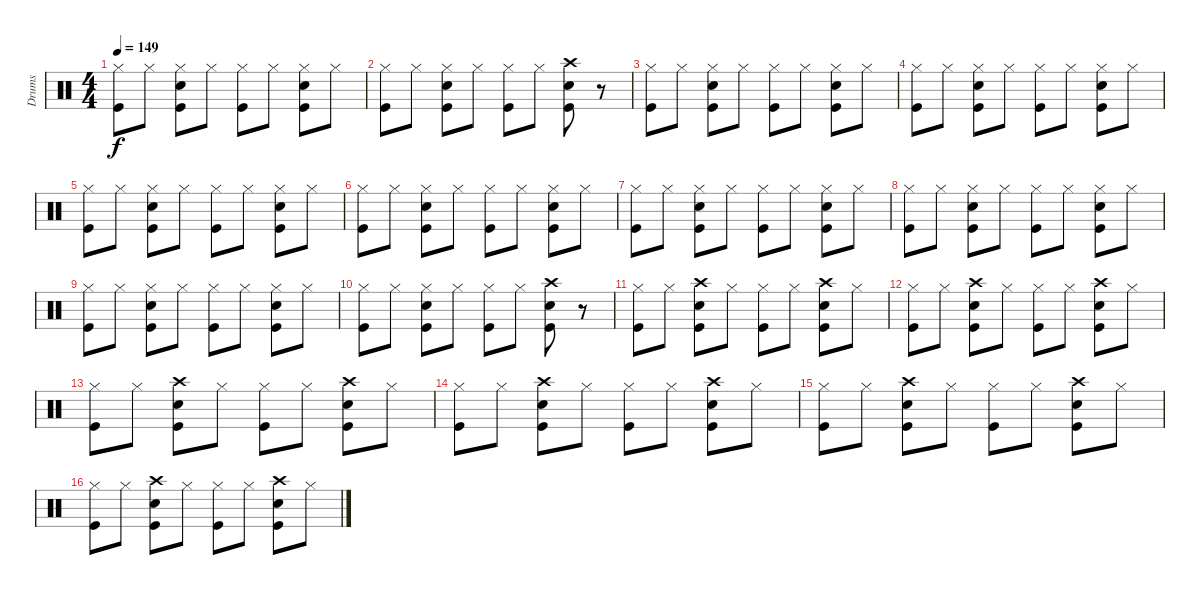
\track ("Drums" "Drums") {instrument percussion}
\staff {score}
\articulation defaults
\ts (4 4)
\tempo 149
\clef neutral
\ks c
("Hi-Hat (closed)" "Kick (hit)").8{dy f} "Hi-Hat (closed)".8 ("Hi-Hat (closed)" "Kick (hit)" "Snare (hit) 2").8 "Hi-Hat (closed)".8 ("Hi-Hat (closed)" "Kick (hit)").8 "Hi-Hat (closed)".8 ("Hi-Hat (closed)" "Kick (hit)" "Snare (hit) 2").8 "Hi-Hat (closed)".8 |
("Hi-Hat (closed)" "Kick (hit)").8 "Hi-Hat (closed)".8 ("Hi-Hat (closed)" "Snare (hit) 2" "Kick (hit)").8 "Hi-Hat (closed)".8 ("Hi-Hat (closed)" "Kick (hit)").8 "Hi-Hat (closed)".8 ("Crash high (hit)" "Kick (hit)" "Snare (hit) 2").8 r.8 |
("Hi-Hat (closed)" "Kick (hit)").8 "Hi-Hat (closed)".8 ("Hi-Hat (closed)" "Kick (hit)" "Snare (hit) 2").8 "Hi-Hat (closed)".8 ("Hi-Hat (closed)" "Kick (hit)").8 "Hi-Hat (closed)".8 ("Hi-Hat (closed)" "Kick (hit)" "Snare (hit) 2").8 "Hi-Hat (closed)".8 |
("Hi-Hat (closed)" "Kick (hit)").8 "Hi-Hat (closed)".8 ("Hi-Hat (closed)" "Kick (hit)" "Snare (hit) 2").8 "Hi-Hat (closed)".8 ("Hi-Hat (closed)" "Kick (hit)").8 "Hi-Hat (closed)".8 ("Hi-Hat (closed)" "Kick (hit)" "Snare (hit) 2").8 "Hi-Hat (closed)".8 |
("Hi-Hat (closed)" "Kick (hit)").8 "Hi-Hat (closed)".8 ("Hi-Hat (closed)" "Kick (hit)" "Snare (hit) 2").8 "Hi-Hat (closed)".8 ("Hi-Hat (closed)" "Kick (hit)").8 "Hi-Hat (closed)".8 ("Hi-Hat (closed)" "Kick (hit)" "Snare (hit) 2").8 "Hi-Hat (closed)".8 |
("Hi-Hat (closed)" "Kick (hit)").8 "Hi-Hat (closed)".8 ("Hi-Hat (closed)" "Kick (hit)" "Snare (hit) 2").8 "Hi-Hat (closed)".8 ("Hi-Hat (closed)" "Kick (hit)").8 "Hi-Hat (closed)".8 ("Hi-Hat (closed)" "Kick (hit)" "Snare (hit) 2").8 "Hi-Hat (closed)".8 |
("Hi-Hat (closed)" "Kick (hit)").8 "Hi-Hat (closed)".8 ("Hi-Hat (closed)" "Kick (hit)" "Snare (hit) 2").8 "Hi-Hat (closed)".8 ("Hi-Hat (closed)" "Kick (hit)").8 "Hi-Hat (closed)".8 ("Hi-Hat (closed)" "Kick (hit)" "Snare (hit) 2").8 "Hi-Hat (closed)".8 |
("Hi-Hat (closed)" "Kick (hit)").8 "Hi-Hat (closed)".8 ("Hi-Hat (closed)" "Kick (hit)" "Snare (hit) 2").8 "Hi-Hat (closed)".8 ("Hi-Hat (closed)" "Kick (hit)").8 "Hi-Hat (closed)".8 ("Hi-Hat (closed)" "Kick (hit)" "Snare (hit) 2").8 "Hi-Hat (closed)".8 |
("Hi-Hat (closed)" "Kick (hit)").8 "Hi-Hat (closed)".8 ("Hi-Hat (closed)" "Kick (hit)" "Snare (hit) 2").8 "Hi-Hat (closed)".8 ("Hi-Hat (closed)" "Kick (hit)").8 "Hi-Hat (closed)".8 ("Hi-Hat (closed)" "Kick (hit)" "Snare (hit) 2").8 "Hi-Hat (closed)".8 |
("Hi-Hat (closed)" "Kick (hit)").8 "Hi-Hat (closed)".8 ("Hi-Hat (closed)" "Kick (hit)" "Snare (hit) 2").8 "Hi-Hat (closed)".8 ("Hi-Hat (closed)" "Kick (hit)").8 "Hi-Hat (closed)".8 ("Crash high (hit)" "Kick (hit)" "Snare (hit) 2").8 r.8 |
("Hi-Hat (closed)" "Kick (hit)").8 "Hi-Hat (closed)".8 ("Crash high (hit)" "Kick (hit)" "Snare (hit) 2").8 "Hi-Hat (closed)".8 ("Hi-Hat (closed)" "Kick (hit)").8 "Hi-Hat (closed)".8 ("Crash high (hit)" "Snare (hit) 2" "Kick (hit)").8 "Hi-Hat (closed)".8 |
("Hi-Hat (closed)" "Kick (hit)").8 "Hi-Hat (closed)".8 ("Crash high (hit)" "Kick (hit)" "Snare (hit) 2").8 "Hi-Hat (closed)".8 ("Hi-Hat (closed)" "Kick (hit)").8 "Hi-Hat (closed)".8 ("Crash high (hit)" "Snare (hit) 2" "Kick (hit)").8 "Hi-Hat (closed)".8 |
("Hi-Hat (closed)" "Kick (hit)").8 "Hi-Hat (closed)".8 ("Crash high (hit)" "Kick (hit)" "Snare (hit) 2").8 "Hi-Hat (closed)".8 ("Hi-Hat (closed)" "Kick (hit)").8 "Hi-Hat (closed)".8 ("Crash high (hit)" "Snare (hit) 2" "Kick (hit)").8 "Hi-Hat (closed)".8 |
("Hi-Hat (closed)" "Kick (hit)").8 "Hi-Hat (closed)".8 ("Crash high (hit)" "Kick (hit)" "Snare (hit) 2").8 "Hi-Hat (closed)".8 ("Hi-Hat (closed)" "Kick (hit)").8 "Hi-Hat (closed)".8 ("Crash high (hit)" "Snare (hit) 2" "Kick (hit)").8 "Hi-Hat (closed)".8 |
("Hi-Hat (closed)" "Kick (hit)").8 "Hi-Hat (closed)".8 ("Crash high (hit)" "Kick (hit)" "Snare (hit) 2").8 "Hi-Hat (closed)".8 ("Hi-Hat (closed)" "Kick (hit)").8 "Hi-Hat (closed)".8 ("Crash high (hit)" "Snare (hit) 2" "Kick (hit)").8 "Hi-Hat (closed)".8 |
("Hi-Hat (closed)" "Kick (hit)").8 "Hi-Hat (closed)".8 ("Crash high (hit)" "Kick (hit)" "Snare (hit) 2").8 "Hi-Hat (closed)".8 ("Hi-Hat (closed)" "Kick (hit)").8 "Hi-Hat (closed)".8 ("Crash high (hit)" "Snare (hit) 2" "Kick (hit)").8 "Hi-Hat (closed)".8
